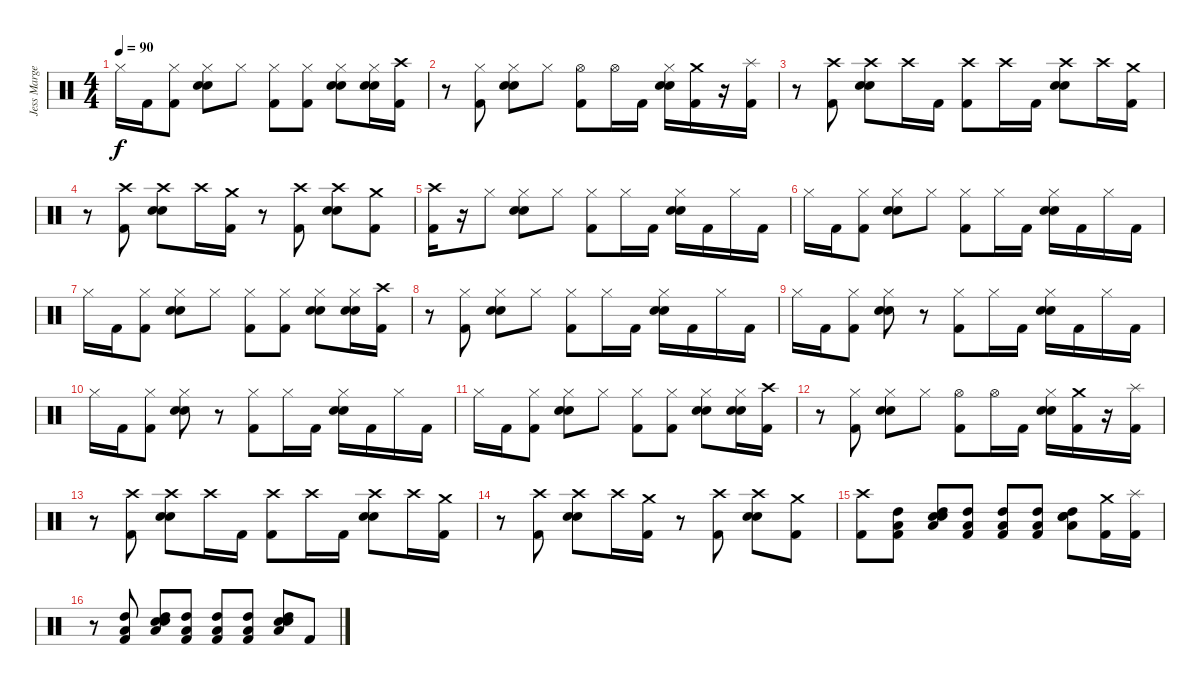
\track ("Jess Margera" "Jess Marge") {instrument percussion}
\staff {score}
\articulation defaults
\ts (4 4)
\tempo 90
\clef neutral
\ks c "Hi-Hat (closed)".16{dy f} "Kick (hit) 2".16
("Hi-Hat (closed)" "Kick (hit) 2").8 ("Hi-Hat (closed)" "Snare (hit) 2" "Electric Snare (hit)").8 "Hi-Hat (closed)".8 ("Hi-Hat (closed)" "Kick (hit) 2").8 ("Hi-Hat (closed)" "Kick (hit) 2").8 ("Hi-Hat (closed)" "Snare (hit) 2" "Electric Snare (hit)").8 ("Hi-Hat (closed)" "Snare (hit) 2" "Electric Snare (hit)").16 ("Crash high (hit)" "Kick (hit) 2").16 |
r.8 ("Hi-Hat (closed)" "Kick (hit) 2").8 ("Hi-Hat (closed)" "Snare (hit) 2" "Electric Snare (hit)").8 "Hi-Hat (closed)".8 ("Hi-Hat (open)" "Kick (hit) 2").8 "Hi-Hat (open)".16 "Kick (hit) 2".16 ("Hi-Hat (closed)" "Snare (hit) 2" "Electric Snare (hit)").16 ("Crash medium (hit)" "Kick (hit) 2").16 r.16 ("Splash (hit)" "Kick (hit) 2").16 |
r.8 ("Crash high (hit)" "Kick (hit) 2").8 ("Crash high (hit)" "Snare (hit) 2" "Electric Snare (hit)").8 "Crash high (hit)".16 "Kick (hit) 2".16 ("Crash high (hit)" "Kick (hit) 2").8 "Crash high (hit)".16 "Kick (hit) 2".16 ("Crash high (hit)" "Snare (hit) 2" "Electric Snare (hit)").8 "Crash high (hit)".16 ("Crash medium (hit)" "Kick (hit) 2").16 |
r.8 ("Crash high (hit)" "Kick (hit) 2").8 ("Crash high (hit)" "Electric Snare (hit)" "Snare (hit) 2").8 "Crash high (hit)".16 ("Crash medium (hit)" "Kick (hit) 2").16 r.8 ("Crash high (hit)" "Kick (hit) 2").8 ("Crash high (hit)" "Electric Snare (hit)" "Snare (hit) 2").8 ("Crash medium (hit)" "Kick (hit) 2").8 |
("Crash high (hit)" "Kick (hit) 2").16 r.16 "Hi-Hat (closed)".8 ("Hi-Hat (closed)" "Snare (hit) 2" "Electric Snare (hit)").8 "Hi-Hat (closed)".8 ("Hi-Hat (closed)" "Kick (hit) 2").8 "Hi-Hat (closed)".16 "Kick (hit) 2".16 ("Hi-Hat (closed)" "Snare (hit) 2" "Electric Snare (hit)").16 "Kick (hit) 2".16 "Hi-Hat (closed)".16 "Kick (hit) 2".16 |
"Hi-Hat (closed)".16 "Kick (hit) 2".16 ("Hi-Hat (closed)" "Kick (hit) 2").8 ("Hi-Hat (closed)" "Snare (hit) 2" "Electric Snare (hit)").8 "Hi-Hat (closed)".8 ("Hi-Hat (closed)" "Kick (hit) 2").8 "Hi-Hat (closed)".16 "Kick (hit) 2".16 ("Hi-Hat (closed)" "Snare (hit) 2" "Electric Snare (hit)").16 "Kick (hit) 2".16 "Hi-Hat (closed)".16 "Kick (hit) 2".16 |
"Hi-Hat (closed)".16 "Kick (hit) 2".16 ("Hi-Hat (closed)" "Kick (hit) 2").8 ("Hi-Hat (closed)" "Snare (hit) 2" "Electric Snare (hit)").8 "Hi-Hat (closed)".8 ("Hi-Hat (closed)" "Kick (hit) 2").8 ("Hi-Hat (closed)" "Kick (hit) 2").8 ("Hi-Hat (closed)" "Snare (hit) 2" "Electric Snare (hit)").8 ("Hi-Hat (closed)" "Snare (hit) 2" "Electric Snare (hit)").16 ("Crash high (hit)" "Kick (hit) 2").16 |
r.8 ("Hi-Hat (closed)" "Kick (hit) 2").8 ("Hi-Hat (closed)" "Snare (hit) 2" "Electric Snare (hit)").8 "Hi-Hat (closed)".8 ("Hi-Hat (closed)" "Kick (hit) 2").8 "Hi-Hat (closed)".16 "Kick (hit) 2".16 ("Hi-Hat (closed)" "Snare (hit) 2" "Electric Snare (hit)").16 "Kick (hit) 2".16 "Hi-Hat (closed)".16 "Kick (hit) 2".16 |
"Hi-Hat (closed)".16 "Kick (hit) 2".16 ("Hi-Hat (closed)" "Kick (hit) 2").8 ("Hi-Hat (closed)" "Snare (hit) 2" "Electric Snare (hit)").8 r.8 ("Hi-Hat (closed)" "Kick (hit) 2").8 "Hi-Hat (closed)".16 "Kick (hit) 2".16 ("Hi-Hat (closed)" "Snare (hit) 2" "Electric Snare (hit)").16 "Kick (hit) 2".16 "Hi-Hat (closed)".16 "Kick (hit) 2".16 |
"Hi-Hat (closed)".16 "Kick (hit) 2".16 ("Hi-Hat (closed)" "Kick (hit) 2").8 ("Hi-Hat (closed)" "Snare (hit) 2" "Electric Snare (hit)").8 r.8 ("Hi-Hat (closed)" "Kick (hit) 2").8 "Hi-Hat (closed)".16 "Kick (hit) 2".16 ("Hi-Hat (closed)" "Snare (hit) 2" "Electric Snare (hit)").16 "Kick (hit) 2".16 "Hi-Hat (closed)".16 "Kick (hit) 2".16 |
"Hi-Hat (closed)".16 "Kick (hit) 2".16 ("Hi-Hat (closed)" "Kick (hit) 2").8 ("Hi-Hat (closed)" "Snare (hit) 2" "Electric Snare (hit)").8 "Hi-Hat (closed)".8 ("Hi-Hat (closed)" "Kick (hit) 2").8 ("Hi-Hat (closed)" "Kick (hit) 2").8 ("Hi-Hat (closed)" "Snare (hit) 2" "Electric Snare (hit)").8 ("Hi-Hat (closed)" "Snare (hit) 2" "Electric Snare (hit)").16 ("Crash high (hit)" "Kick (hit) 2").16 |
r.8 ("Hi-Hat (closed)" "Kick (hit) 2").8 ("Hi-Hat (closed)" "Snare (hit) 2" "Electric Snare (hit)").8 "Hi-Hat (closed)".8 ("Hi-Hat (open)" "Kick (hit) 2").8 "Hi-Hat (open)".16 "Kick (hit) 2".16 ("Hi-Hat (closed)" "Snare (hit) 2" "Electric Snare (hit)").16 ("Crash medium (hit)" "Kick (hit) 2").16 r.16 ("Splash (hit)" "Kick (hit) 2").16 |
r.8 ("Crash high (hit)" "Kick (hit) 2").8 ("Crash high (hit)" "Snare (hit) 2" "Electric Snare (hit)").8 "Crash high (hit)".16 "Kick (hit) 2".16 ("Crash high (hit)" "Kick (hit) 2").8 "Crash high (hit)".16 "Kick (hit) 2".16 ("Crash high (hit)" "Snare (hit) 2" "Electric Snare (hit)").8 "Crash high (hit)".16 ("Crash medium (hit)" "Kick (hit) 2").16 |
r.8 ("Crash high (hit)" "Kick (hit) 2").8 ("Crash high (hit)" "Electric Snare (hit)" "Snare (hit) 2").8 "Crash high (hit)".16 ("Crash medium (hit)" "Kick (hit) 2").16 r.8 ("Crash high (hit)" "Kick (hit) 2").8 ("Crash high (hit)" "Electric Snare (hit)" "Snare (hit) 2").8 ("Crash medium (hit)" "Kick (hit) 2").8 |
("Crash high (hit)" "Kick (hit) 2").8 ("Kick (hit) 2" "High Tom (hit)" "Low Tom (hit)").8 ("Electric Snare (hit)" "High Tom (hit)" "Low Tom (hit)" "Snare (hit) 2").8 ("Kick (hit) 2" "High Tom (hit)" "Low Tom (hit)").8 ("Kick (hit) 2" "High Tom (hit)" "Low Tom (hit)").8 ("Kick (hit) 2" "High Tom (hit)" "Low Tom (hit)").8 ("Electric Snare (hit)" "High Tom (hit)" "Low Tom (hit)" "Snare (hit) 2").8 ("Crash medium (hit)" "Kick (hit) 2").16 ("Splash (hit)" "Kick (hit) 2").16 |
r.8 ("Kick (hit) 2" "High Tom (hit)" "Low Tom (hit)").8 ("Electric Snare (hit)" "High Tom (hit)" "Low Tom (hit)" "Snare (hit) 2").8 ("Kick (hit) 2" "High Tom (hit)" "Low Tom (hit)").8 ("Kick (hit) 2" "High Tom (hit)" "Low Tom (hit)").8 ("Kick (hit) 2" "High Tom (hit)" "Low Tom (hit)").8 ("Electric Snare (hit)" "High Tom (hit)" "Low Tom (hit)" "Snare (hit) 2").8 "Kick (hit) 2".8
